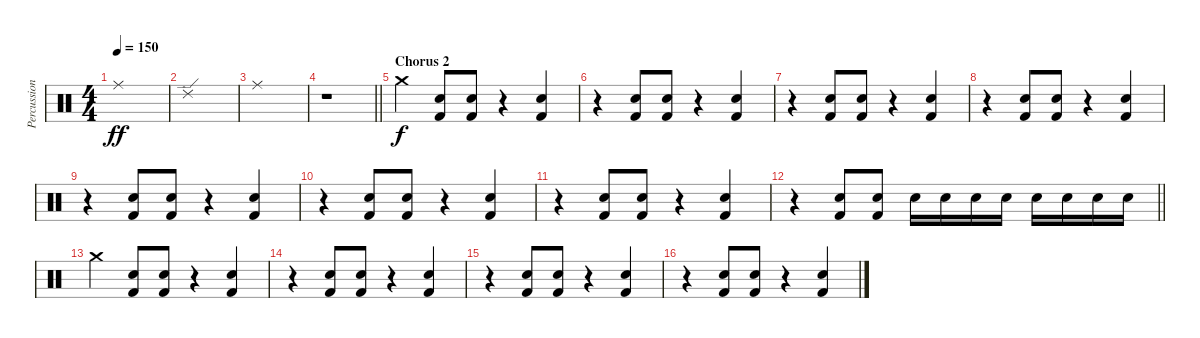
\track ("Percussion" "Percussion") {instrument percussion}
\staff {score}
\articulation defaults
\ts (4 4)
\tempo 150
\clef neutral
\ks c "Ride (middle)".1{dy ff}
|
"Ride (edge) 2".1 |
"Ride (middle)".1 |
\barLineRight lightlight
r.1 |
\section ("" "Chorus 2")
"Crash medium (hit)".4{dy f} ("Snare (hit) 2" "Kick (hit) 2").8 ("Snare (hit) 2" "Kick (hit) 2").8 r.4 ("Snare (hit) 2" "Kick (hit) 2").4 |
r.4 ("Snare (hit) 2" "Kick (hit) 2").8 ("Snare (hit) 2" "Kick (hit) 2").8 r.4 ("Snare (hit) 2" "Kick (hit) 2").4 |
r.4 ("Snare (hit) 2" "Kick (hit) 2").8 ("Snare (hit) 2" "Kick (hit) 2").8 r.4 ("Snare (hit) 2" "Kick (hit) 2").4 |
r.4 ("Snare (hit) 2" "Kick (hit) 2").8 ("Snare (hit) 2" "Kick (hit) 2").8 r.4 ("Snare (hit) 2" "Kick (hit) 2").4 |
r.4 ("Snare (hit) 2" "Kick (hit) 2").8 ("Snare (hit) 2" "Kick (hit) 2").8 r.4 ("Snare (hit) 2" "Kick (hit) 2").4 |
r.4 ("Snare (hit) 2" "Kick (hit) 2").8 ("Snare (hit) 2" "Kick (hit) 2").8 r.4 ("Snare (hit) 2" "Kick (hit) 2").4 |
r.4 ("Snare (hit) 2" "Kick (hit) 2").8 ("Snare (hit) 2" "Kick (hit) 2").8 r.4 ("Snare (hit) 2" "Kick (hit) 2").4 |
\barLineRight lightlight
r.4 ("Snare (hit) 2" "Kick (hit) 2").8 ("Snare (hit) 2" "Kick (hit) 2").8 "Electric Snare (hit)".16 "Electric Snare (hit)".16 "Electric Snare (hit)".16 "Electric Snare (hit)".16 "Snare (hit) 2".16 "Snare (hit) 2".16 "Snare (hit) 2".16 "Snare (hit) 2".16 |
"Crash medium (hit)".4 ("Snare (hit) 2" "Kick (hit) 2").8 ("Snare (hit) 2" "Kick (hit) 2").8 r.4 ("Snare (hit) 2" "Kick (hit) 2").4 |
r.4 ("Snare (hit) 2" "Kick (hit) 2").8 ("Snare (hit) 2" "Kick (hit) 2").8 r.4 ("Snare (hit) 2" "Kick (hit) 2").4 |
r.4 ("Snare (hit) 2" "Kick (hit) 2").8 ("Snare (hit) 2" "Kick (hit) 2").8 r.4 ("Snare (hit) 2" "Kick (hit) 2").4 |
r.4 ("Snare (hit) 2" "Kick (hit) 2").8 ("Snare (hit) 2" "Kick (hit) 2").8 r.4 ("Snare (hit) 2" "Kick (hit) 2").4
